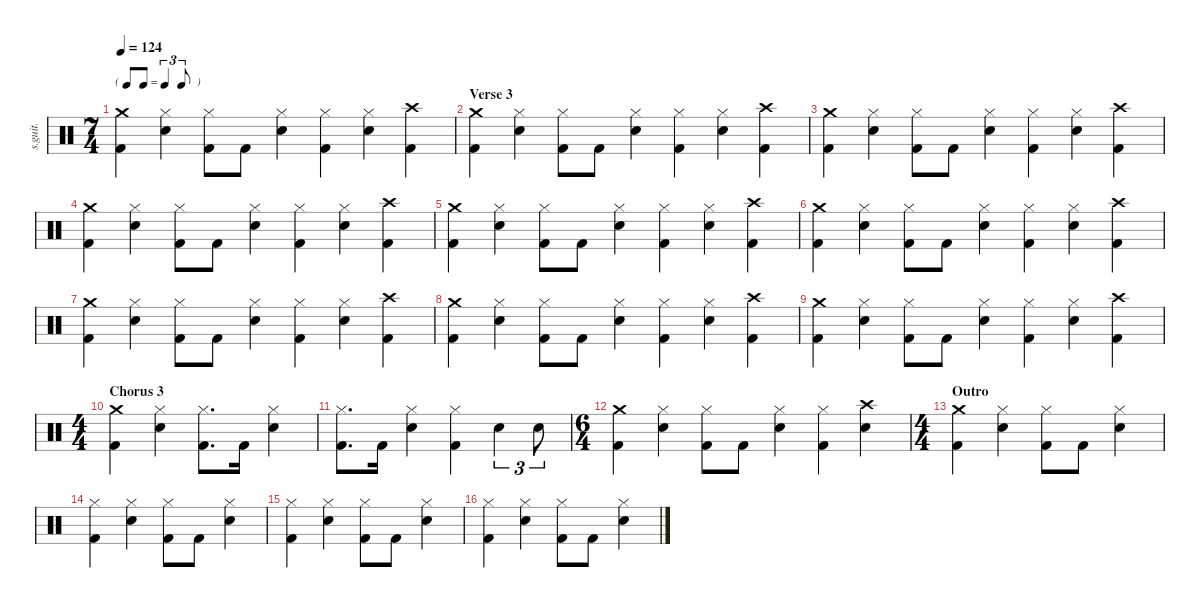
\defaultSystemsLayout 4
\hideDynamics
\bracketExtendMode nobrackets
\track ("Nick Mason | Ludwig Drumkit | Drums" "s.guit.") {instrument percussion}
\staff {score}
\articulation defaults
\ts (7 4)
\tf triplet8th
\tempo 124
\clef neutral
\ks c
("Crash medium (hit)" "Kick (hit) 2").4{dy mf} ("Hi-Hat (closed)" "Snare (hit) 2").4 ("Hi-Hat (closed)" "Kick (hit) 2").8 "Kick (hit) 2".8 ("Hi-Hat (closed)" "Snare (hit) 2").4 ("Hi-Hat (closed)" "Kick (hit) 2").4 ("Hi-Hat (closed)" "Snare (hit) 2").4 ("Crash high (hit)" "Kick (hit) 2").4 |
\section ("" "Verse 3")
("Crash medium (hit)" "Kick (hit) 2").4 ("Hi-Hat (closed)" "Snare (hit) 2").4 ("Hi-Hat (closed)" "Kick (hit) 2").8 "Kick (hit) 2".8 ("Hi-Hat (closed)" "Snare (hit) 2").4 ("Hi-Hat (closed)" "Kick (hit) 2").4 ("Hi-Hat (closed)" "Snare (hit) 2").4 ("Crash high (hit)" "Kick (hit) 2").4 |
("Crash medium (hit)" "Kick (hit) 2").4 ("Hi-Hat (closed)" "Snare (hit) 2").4 ("Hi-Hat (closed)" "Kick (hit) 2").8 "Kick (hit) 2".8 ("Hi-Hat (closed)" "Snare (hit) 2").4 ("Hi-Hat (closed)" "Kick (hit) 2").4 ("Hi-Hat (closed)" "Snare (hit) 2").4 ("Crash high (hit)" "Kick (hit) 2").4 |
("Crash medium (hit)" "Kick (hit) 2").4 ("Hi-Hat (closed)" "Snare (hit) 2").4 ("Hi-Hat (closed)" "Kick (hit) 2").8 "Kick (hit) 2".8 ("Hi-Hat (closed)" "Snare (hit) 2").4 ("Hi-Hat (closed)" "Kick (hit) 2").4 ("Hi-Hat (closed)" "Snare (hit) 2").4 ("Crash high (hit)" "Kick (hit) 2").4 |
("Crash medium (hit)" "Kick (hit) 2").4 ("Hi-Hat (closed)" "Snare (hit) 2").4 ("Hi-Hat (closed)" "Kick (hit) 2").8 "Kick (hit) 2".8 ("Hi-Hat (closed)" "Snare (hit) 2").4 ("Hi-Hat (closed)" "Kick (hit) 2").4 ("Hi-Hat (closed)" "Snare (hit) 2").4 ("Crash high (hit)" "Kick (hit) 2").4 |
("Crash medium (hit)" "Kick (hit) 2").4 ("Hi-Hat (closed)" "Snare (hit) 2").4 ("Hi-Hat (closed)" "Kick (hit) 2").8 "Kick (hit) 2".8 ("Hi-Hat (closed)" "Snare (hit) 2").4 ("Hi-Hat (closed)" "Kick (hit) 2").4 ("Hi-Hat (closed)" "Snare (hit) 2").4 ("Crash high (hit)" "Kick (hit) 2").4 |
("Crash medium (hit)" "Kick (hit) 2").4 ("Hi-Hat (closed)" "Snare (hit) 2").4 ("Hi-Hat (closed)" "Kick (hit) 2").8 "Kick (hit) 2".8 ("Hi-Hat (closed)" "Snare (hit) 2").4 ("Hi-Hat (closed)" "Kick (hit) 2").4 ("Hi-Hat (closed)" "Snare (hit) 2").4 ("Crash high (hit)" "Kick (hit) 2").4 |
("Crash medium (hit)" "Kick (hit) 2").4 ("Hi-Hat (closed)" "Snare (hit) 2").4 ("Hi-Hat (closed)" "Kick (hit) 2").8 "Kick (hit) 2".8 ("Hi-Hat (closed)" "Snare (hit) 2").4 ("Hi-Hat (closed)" "Kick (hit) 2").4 ("Hi-Hat (closed)" "Snare (hit) 2").4 ("Crash high (hit)" "Kick (hit) 2").4 |
("Crash medium (hit)" "Kick (hit) 2").4 ("Hi-Hat (closed)" "Snare (hit) 2").4 ("Hi-Hat (closed)" "Kick (hit) 2").8 "Kick (hit) 2".8 ("Hi-Hat (closed)" "Snare (hit) 2").4 ("Hi-Hat (closed)" "Kick (hit) 2").4 ("Hi-Hat (closed)" "Snare (hit) 2").4 ("Crash high (hit)" "Kick (hit) 2").4 |
\ts (4 4)
\beaming (8 2 2 2 2)
\section ("" "Chorus 3")
("Crash medium (hit)" "Kick (hit) 2").4 ("Hi-Hat (closed)" "Snare (hit) 2").4 ("Hi-Hat (closed)" "Kick (hit) 2").8{d} "Kick (hit) 2".16{dy f} ("Hi-Hat (closed)" "Snare (hit) 2").4{dy mf} |
("Hi-Hat (closed)" "Kick (hit) 2").8{d} "Kick (hit) 2".16{dy f} ("Hi-Hat (closed)" "Snare (hit) 2").4 ("Hi-Hat (closed)" "Kick (hit) 2").4 "Snare (hit) 2".4{tu (3 2)} "Snare (hit) 2".8{tu (3 2)} |
\ts (6 4)
\beaming (8 2 2 2 2)
("Crash medium (hit)" "Kick (hit) 2").4 ("Hi-Hat (closed)" "Snare (hit) 2").4{dy mf} ("Hi-Hat (closed)" "Kick (hit) 2").8 "Kick (hit) 2".8 ("Hi-Hat (closed)" "Snare (hit) 2").4 ("Hi-Hat (closed)" "Kick (hit) 2").4 ("Crash high (hit)" "Snare (hit) 2").4 |
\ts (4 4)
\beaming (8 2 2 2 2)
\section ("" "Outro")
("Crash medium (hit)" "Kick (hit) 2").4 ("Hi-Hat (closed)" "Snare (hit) 2").4 ("Hi-Hat (closed)" "Kick (hit) 2").8 "Kick (hit) 2".8 ("Hi-Hat (closed)" "Snare (hit) 2").4 |
("Hi-Hat (closed)" "Kick (hit) 2").4{dy f} ("Hi-Hat (closed)" "Snare (hit) 2").4{dy mf} ("Hi-Hat (closed)" "Kick (hit) 2").8 "Kick (hit) 2".8 ("Hi-Hat (closed)" "Snare (hit) 2").4 |
("Hi-Hat (closed)" "Kick (hit) 2").4{dy f} ("Hi-Hat (closed)" "Snare (hit) 2").4{dy mf} ("Hi-Hat (closed)" "Kick (hit) 2").8 "Kick (hit) 2".8 ("Hi-Hat (closed)" "Snare (hit) 2").4 |
("Hi-Hat (closed)" "Kick (hit) 2").4{dy f} ("Hi-Hat (closed)" "Snare (hit) 2").4{dy mf} ("Hi-Hat (closed)" "Kick (hit) 2").8 "Kick (hit) 2".8 ("Hi-Hat (closed)" "Snare (hit) 2").4
